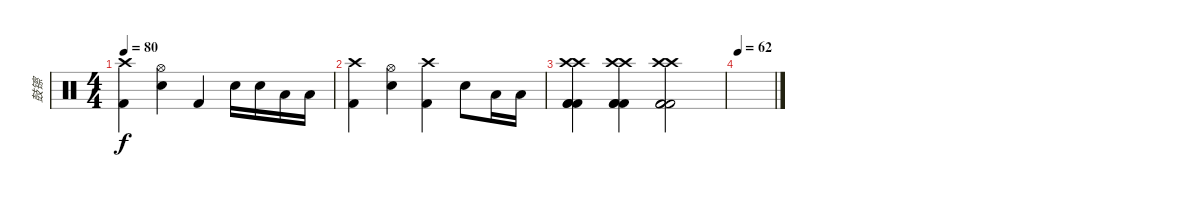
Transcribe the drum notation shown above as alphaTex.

\track ("鼓镲" "鼓镲") {instrument percussion}
\staff {score}
\articulation defaults
\ts (4 4)
\tempo 80
\clef neutral
\ks c
("Crash high (hit)" "Kick (hit) 2").4{dy f} ("Hi-Hat (open)" "Electric Snare (hit)").4 "Kick (hit) 2".4 "Electric Snare (hit)".16 "Electric Snare (hit)".16 "Low Tom (hit)".16 "Low Tom (hit)".16 |
("Crash high (hit)" "Kick (hit) 2").4 ("Hi-Hat (open)" "Electric Snare (hit)").4 ("Crash high (hit)" "Kick (hit) 2").4 "Electric Snare (hit)".8 "Low Tom (hit)".16 "Low Tom (hit)".16 |
("Kick (hit) 2" "Crash high (hit)" "Crash high (hit)" "Kick (hit) 2" "Kick (hit) 2").4 ("Kick (hit) 2" "Crash high (hit)" "Crash high (hit)" "Kick (hit) 2" "Kick (hit) 2").4 ("Kick (hit) 2" "Crash high (hit)" "Crash high (hit)" "Kick (hit) 2" "Kick (hit) 2").2 |
\tempo 62
